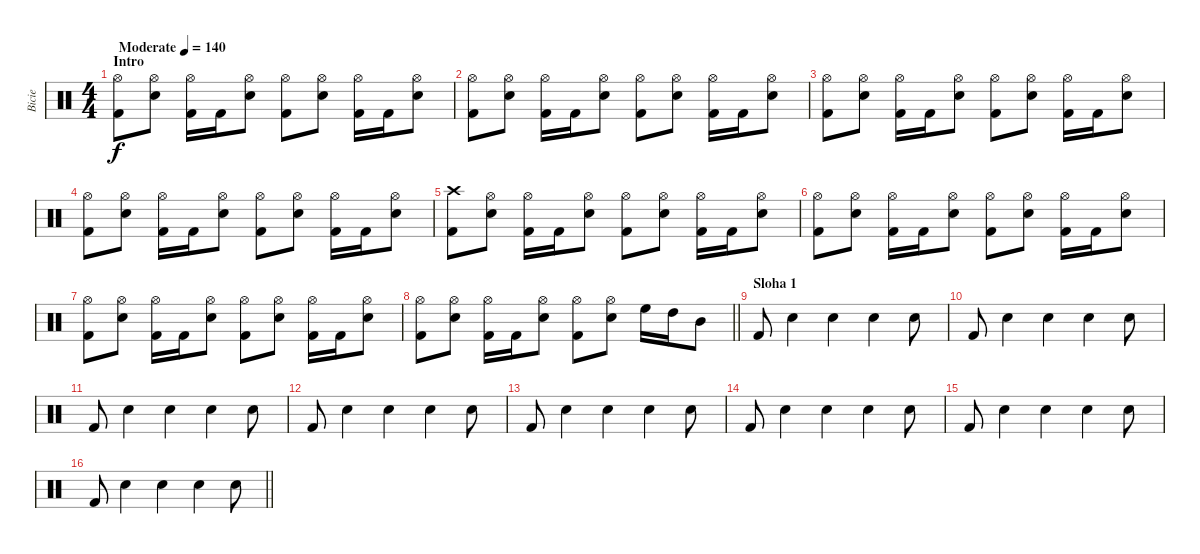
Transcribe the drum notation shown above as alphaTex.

\track ("Bicie" "Bicie") {instrument percussion}
\staff {score}
\articulation defaults
\ts (4 4)
\section ("" "Intro")
\tempo (140 "Moderate")
\clef neutral
\ks c
("Hi-Hat (open)" "Kick (hit) 2").8{dy f} ("Hi-Hat (open)" "Snare (hit) 2").8 ("Hi-Hat (open)" "Kick (hit) 2").16 "Kick (hit) 2".16 ("Hi-Hat (open)" "Snare (hit) 2").8 ("Hi-Hat (open)" "Kick (hit) 2").8 ("Hi-Hat (open)" "Snare (hit) 2").8 ("Hi-Hat (open)" "Kick (hit) 2").16 "Kick (hit) 2".16 ("Hi-Hat (open)" "Snare (hit) 2").8 |
("Hi-Hat (open)" "Kick (hit) 2").8 ("Hi-Hat (open)" "Snare (hit) 2").8 ("Hi-Hat (open)" "Kick (hit) 2").16 "Kick (hit) 2".16 ("Hi-Hat (open)" "Snare (hit) 2").8 ("Hi-Hat (open)" "Kick (hit) 2").8 ("Hi-Hat (open)" "Snare (hit) 2").8 ("Hi-Hat (open)" "Kick (hit) 2").16 "Kick (hit) 2".16 ("Hi-Hat (open)" "Snare (hit) 2").8 |
("Hi-Hat (open)" "Kick (hit) 2").8 ("Hi-Hat (open)" "Snare (hit) 2").8 ("Hi-Hat (open)" "Kick (hit) 2").16 "Kick (hit) 2".16 ("Hi-Hat (open)" "Snare (hit) 2").8 ("Hi-Hat (open)" "Kick (hit) 2").8 ("Hi-Hat (open)" "Snare (hit) 2").8 ("Hi-Hat (open)" "Kick (hit) 2").16 "Kick (hit) 2".16 ("Hi-Hat (open)" "Snare (hit) 2").8 |
("Hi-Hat (open)" "Kick (hit) 2").8 ("Hi-Hat (open)" "Snare (hit) 2").8 ("Hi-Hat (open)" "Kick (hit) 2").16 "Kick (hit) 2".16 ("Hi-Hat (open)" "Snare (hit) 2").8 ("Hi-Hat (open)" "Kick (hit) 2").8 ("Hi-Hat (open)" "Snare (hit) 2").8 ("Hi-Hat (open)" "Kick (hit) 2").16 "Kick (hit) 2".16 ("Hi-Hat (open)" "Snare (hit) 2").8 |
("Crash high (hit)" "Kick (hit) 2").8 ("Hi-Hat (open)" "Snare (hit) 2").8 ("Hi-Hat (open)" "Kick (hit) 2").16 "Kick (hit) 2".16 ("Hi-Hat (open)" "Snare (hit) 2").8 ("Hi-Hat (open)" "Kick (hit) 2").8 ("Hi-Hat (open)" "Snare (hit) 2").8 ("Hi-Hat (open)" "Kick (hit) 2").16 "Kick (hit) 2".16 ("Hi-Hat (open)" "Snare (hit) 2").8 |
("Hi-Hat (open)" "Kick (hit) 2").8 ("Hi-Hat (open)" "Snare (hit) 2").8 ("Hi-Hat (open)" "Kick (hit) 2").16 "Kick (hit) 2".16 ("Hi-Hat (open)" "Snare (hit) 2").8 ("Hi-Hat (open)" "Kick (hit) 2").8 ("Hi-Hat (open)" "Snare (hit) 2").8 ("Hi-Hat (open)" "Kick (hit) 2").16 "Kick (hit) 2".16 ("Hi-Hat (open)" "Snare (hit) 2").8 |
("Hi-Hat (open)" "Kick (hit) 2").8 ("Hi-Hat (open)" "Snare (hit) 2").8 ("Hi-Hat (open)" "Kick (hit) 2").16 "Kick (hit) 2".16 ("Hi-Hat (open)" "Snare (hit) 2").8 ("Hi-Hat (open)" "Kick (hit) 2").8 ("Hi-Hat (open)" "Snare (hit) 2").8 ("Hi-Hat (open)" "Kick (hit) 2").16 "Kick (hit) 2".16 ("Hi-Hat (open)" "Snare (hit) 2").8 |
\barLineRight lightlight
("Hi-Hat (open)" "Kick (hit) 2").8 ("Hi-Hat (open)" "Snare (hit) 2").8 ("Hi-Hat (open)" "Kick (hit) 2").16 "Kick (hit) 2".16 ("Hi-Hat (open)" "Snare (hit) 2").8 ("Hi-Hat (open)" "Kick (hit) 2").8 ("Hi-Hat (open)" "Snare (hit) 2").8 "High Floor Tom (hit)".16 "High Tom (hit)".16 "Mid Tom (hit)".8 |
\section ("" "Sloha 1")
"Kick (hit) 2".8 "Snare (hit) 2".4 "Snare (hit) 2".4 "Snare (hit) 2".4 "Snare (hit) 2".8 |
"Kick (hit) 2".8 "Snare (hit) 2".4 "Snare (hit) 2".4 "Snare (hit) 2".4 "Snare (hit) 2".8 |
"Kick (hit) 2".8 "Snare (hit) 2".4 "Snare (hit) 2".4 "Snare (hit) 2".4 "Snare (hit) 2".8 |
"Kick (hit) 2".8 "Snare (hit) 2".4 "Snare (hit) 2".4 "Snare (hit) 2".4 "Snare (hit) 2".8 |
"Kick (hit) 2".8 "Snare (hit) 2".4 "Snare (hit) 2".4 "Snare (hit) 2".4 "Snare (hit) 2".8 |
"Kick (hit) 2".8 "Snare (hit) 2".4 "Snare (hit) 2".4 "Snare (hit) 2".4 "Snare (hit) 2".8 |
"Kick (hit) 2".8 "Snare (hit) 2".4 "Snare (hit) 2".4 "Snare (hit) 2".4 "Snare (hit) 2".8 |
\barLineRight lightlight "Kick (hit) 2".8 "Snare (hit) 2".4 "Snare (hit) 2".4 "Snare (hit) 2".4 "Snare (hit) 2".8
